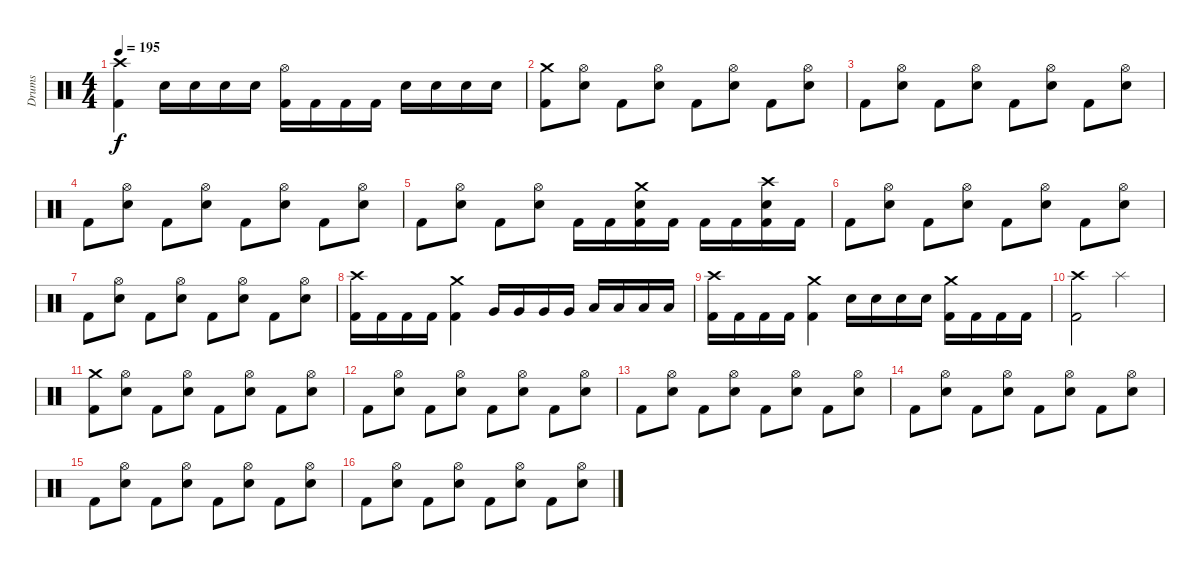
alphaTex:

\track ("Drums" "Drums") {instrument percussion}
\staff {score}
\articulation defaults
\ts (4 4)
\tempo 195
\clef neutral
\ks c
("Crash high (hit)" "Kick (hit) 2").4{dy f} "Snare (hit) 2".16 "Snare (hit) 2".16 "Snare (hit) 2".16 "Snare (hit) 2".16 ("Hi-Hat (open)" "Kick (hit) 2").16 "Kick (hit) 2".16 "Kick (hit) 2".16 "Kick (hit) 2".16 "Snare (hit) 2".16 "Snare (hit) 2".16 "Snare (hit) 2".16 "Snare (hit) 2".16 |
("Crash medium (hit)" "Kick (hit) 2").8 ("Hi-Hat (open)" "Snare (hit) 2").8 "Kick (hit) 2".8 ("Hi-Hat (open)" "Snare (hit) 2").8 "Kick (hit) 2".8 ("Hi-Hat (open)" "Snare (hit) 2").8 "Kick (hit) 2".8 ("Hi-Hat (open)" "Snare (hit) 2").8 |
"Kick (hit) 2".8 ("Hi-Hat (open)" "Snare (hit) 2").8 "Kick (hit) 2".8 ("Hi-Hat (open)" "Snare (hit) 2").8 "Kick (hit) 2".8 ("Hi-Hat (open)" "Snare (hit) 2").8 "Kick (hit) 2".8 ("Hi-Hat (open)" "Snare (hit) 2").8 |
"Kick (hit) 2".8 ("Hi-Hat (open)" "Snare (hit) 2").8 "Kick (hit) 2".8 ("Hi-Hat (open)" "Snare (hit) 2").8 "Kick (hit) 2".8 ("Hi-Hat (open)" "Snare (hit) 2").8 "Kick (hit) 2".8 ("Hi-Hat (open)" "Snare (hit) 2").8 |
"Kick (hit) 2".8 ("Hi-Hat (open)" "Snare (hit) 2").8 "Kick (hit) 2".8 ("Hi-Hat (open)" "Snare (hit) 2").8 "Kick (hit) 2".16 "Kick (hit) 2".16 ("Crash medium (hit)" "Snare (hit) 2" "Kick (hit) 2").16 "Kick (hit) 2".16 "Kick (hit) 2".16 "Kick (hit) 2".16 ("Crash high (hit)" "Snare (hit) 2" "Kick (hit) 2").16 "Kick (hit) 2".16 |
"Kick (hit) 2".8 ("Hi-Hat (open)" "Snare (hit) 2").8 "Kick (hit) 2".8 ("Hi-Hat (open)" "Snare (hit) 2").8 "Kick (hit) 2".8 ("Hi-Hat (open)" "Snare (hit) 2").8 "Kick (hit) 2".8 ("Hi-Hat (open)" "Snare (hit) 2").8 |
"Kick (hit) 2".8 ("Hi-Hat (open)" "Snare (hit) 2").8 "Kick (hit) 2".8 ("Hi-Hat (open)" "Snare (hit) 2").8 "Kick (hit) 2".8 ("Hi-Hat (open)" "Snare (hit) 2").8 "Kick (hit) 2".8 ("Hi-Hat (open)" "Snare (hit) 2").8 |
("Crash high (hit)" "Kick (hit) 2").16 "Kick (hit) 2".16 "Kick (hit) 2".16 "Kick (hit) 2".16 ("Crash medium (hit)" "Kick (hit) 2").4 "Very Low Tom (hit)".16 "Very Low Tom (hit)".16 "Very Low Tom (hit)".16 "Very Low Tom (hit)".16 "Low Floor Tom (hit)".16 "Low Floor Tom (hit)".16 "Low Floor Tom (hit)".16 "Low Floor Tom (hit)".16 |
("Crash high (hit)" "Kick (hit) 2").16 "Kick (hit) 2".16 "Kick (hit) 2".16 "Kick (hit) 2".16 ("Crash medium (hit)" "Kick (hit) 2").4 "Snare (hit) 2".16 "Snare (hit) 2".16 "Snare (hit) 2".16 "Snare (hit) 2".16 ("Crash medium (hit)" "Kick (hit) 2").16 "Kick (hit) 2".16 "Kick (hit) 2".16 "Kick (hit) 2".16 |
("Crash high (hit)"{x} "Kick (hit) 2").2 "Splash (hit)".2 |
("Crash medium (hit)" "Kick (hit) 2").8 ("Hi-Hat (open)" "Snare (hit) 2").8 "Kick (hit) 2".8 ("Hi-Hat (open)" "Snare (hit) 2").8 "Kick (hit) 2".8 ("Hi-Hat (open)" "Snare (hit) 2").8 "Kick (hit) 2".8 ("Hi-Hat (open)" "Snare (hit) 2").8 |
"Kick (hit) 2".8 ("Hi-Hat (open)" "Snare (hit) 2").8 "Kick (hit) 2".8 ("Hi-Hat (open)" "Snare (hit) 2").8 "Kick (hit) 2".8 ("Hi-Hat (open)" "Snare (hit) 2").8 "Kick (hit) 2".8 ("Hi-Hat (open)" "Snare (hit) 2").8 |
"Kick (hit) 2".8 ("Hi-Hat (open)" "Snare (hit) 2").8 "Kick (hit) 2".8 ("Hi-Hat (open)" "Snare (hit) 2").8 "Kick (hit) 2".8 ("Hi-Hat (open)" "Snare (hit) 2").8 "Kick (hit) 2".8 ("Hi-Hat (open)" "Snare (hit) 2").8 |
"Kick (hit) 2".8 ("Hi-Hat (open)" "Snare (hit) 2").8 "Kick (hit) 2".8 ("Hi-Hat (open)" "Snare (hit) 2").8 "Kick (hit) 2".8 ("Hi-Hat (open)" "Snare (hit) 2").8 "Kick (hit) 2".8 ("Hi-Hat (open)" "Snare (hit) 2").8 |
"Kick (hit) 2".8 ("Hi-Hat (open)" "Snare (hit) 2").8 "Kick (hit) 2".8 ("Hi-Hat (open)" "Snare (hit) 2").8 "Kick (hit) 2".8 ("Hi-Hat (open)" "Snare (hit) 2").8 "Kick (hit) 2".8 ("Hi-Hat (open)" "Snare (hit) 2").8 |
"Kick (hit) 2".8 ("Hi-Hat (open)" "Snare (hit) 2").8 "Kick (hit) 2".8 ("Hi-Hat (open)" "Snare (hit) 2").8 "Kick (hit) 2".8 ("Hi-Hat (open)" "Snare (hit) 2").8 "Kick (hit) 2".8 ("Hi-Hat (open)" "Snare (hit) 2").8
